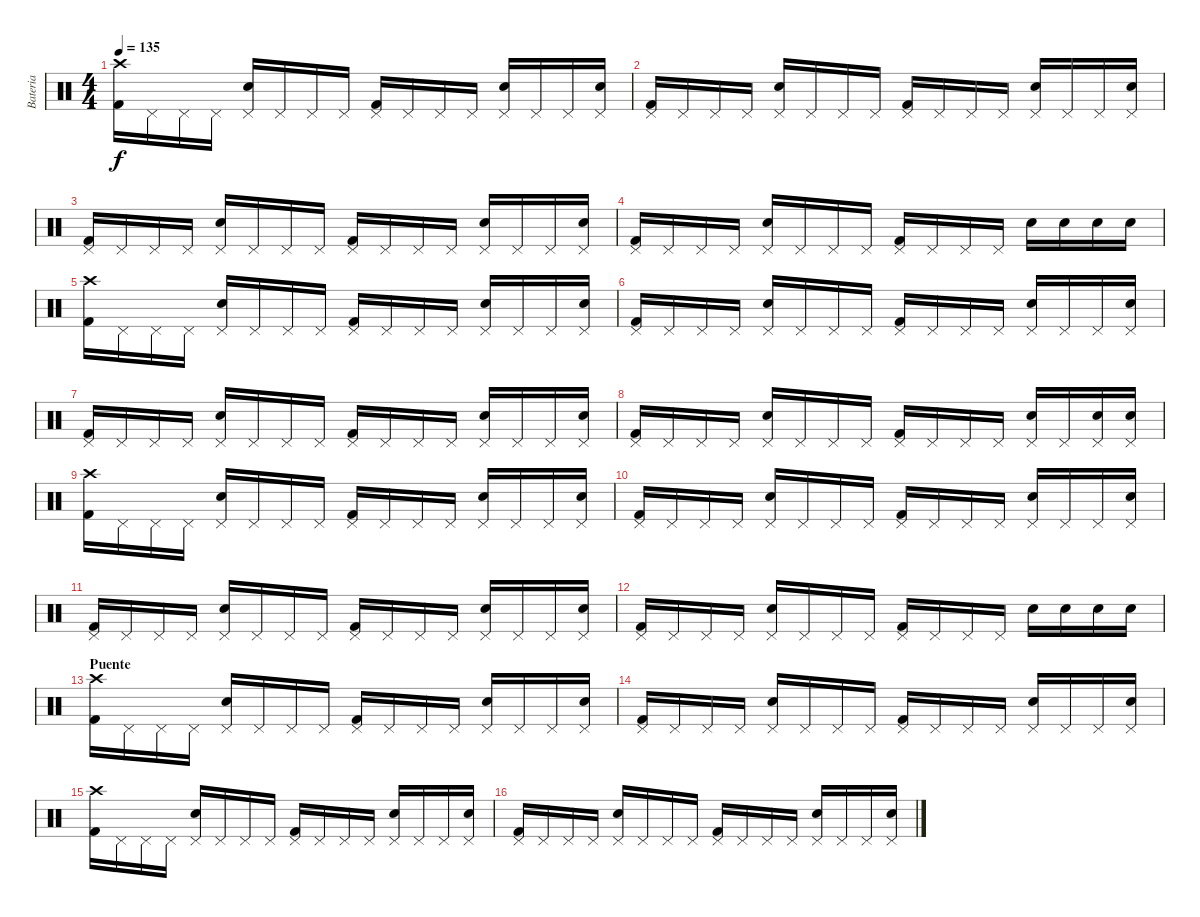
\track ("Bateria" "Bateria") {instrument percussion}
\staff {score}
\articulation defaults
\ts (4 4)
\tempo 135
\clef neutral
\ks c
("Crash high (hit)" "Kick (hit) 2").16{dy f} "Pedal Hi-Hat (hit)".16 "Pedal Hi-Hat (hit)".16 "Pedal Hi-Hat (hit)".16 ("Pedal Hi-Hat (hit)" "Electric Snare (hit)").16 "Pedal Hi-Hat (hit)".16 "Pedal Hi-Hat (hit)".16 "Pedal Hi-Hat (hit)".16 ("Pedal Hi-Hat (hit)" "Kick (hit) 2").16 "Pedal Hi-Hat (hit)".16 "Pedal Hi-Hat (hit)".16 "Pedal Hi-Hat (hit)".16 ("Pedal Hi-Hat (hit)" "Electric Snare (hit)").16 "Pedal Hi-Hat (hit)".16 "Pedal Hi-Hat (hit)".16 ("Pedal Hi-Hat (hit)" "Electric Snare (hit)").16 |
("Pedal Hi-Hat (hit)" "Kick (hit) 2").16 "Pedal Hi-Hat (hit)".16 "Pedal Hi-Hat (hit)".16 "Pedal Hi-Hat (hit)".16 ("Pedal Hi-Hat (hit)" "Electric Snare (hit)").16 "Pedal Hi-Hat (hit)".16 "Pedal Hi-Hat (hit)".16 "Pedal Hi-Hat (hit)".16 ("Pedal Hi-Hat (hit)" "Kick (hit) 2").16 "Pedal Hi-Hat (hit)".16 "Pedal Hi-Hat (hit)".16 "Pedal Hi-Hat (hit)".16 ("Pedal Hi-Hat (hit)" "Electric Snare (hit)").16 "Pedal Hi-Hat (hit)".16 "Pedal Hi-Hat (hit)".16 ("Pedal Hi-Hat (hit)" "Electric Snare (hit)").16 |
("Pedal Hi-Hat (hit)" "Kick (hit) 2").16 "Pedal Hi-Hat (hit)".16 "Pedal Hi-Hat (hit)".16 "Pedal Hi-Hat (hit)".16 ("Pedal Hi-Hat (hit)" "Electric Snare (hit)").16 "Pedal Hi-Hat (hit)".16 "Pedal Hi-Hat (hit)".16 "Pedal Hi-Hat (hit)".16 ("Pedal Hi-Hat (hit)" "Kick (hit) 2").16 "Pedal Hi-Hat (hit)".16 "Pedal Hi-Hat (hit)".16 "Pedal Hi-Hat (hit)".16 ("Pedal Hi-Hat (hit)" "Electric Snare (hit)").16 "Pedal Hi-Hat (hit)".16 "Pedal Hi-Hat (hit)".16 ("Pedal Hi-Hat (hit)" "Electric Snare (hit)").16 |
("Pedal Hi-Hat (hit)" "Kick (hit) 2").16 "Pedal Hi-Hat (hit)".16 "Pedal Hi-Hat (hit)".16 "Pedal Hi-Hat (hit)".16 ("Pedal Hi-Hat (hit)" "Electric Snare (hit)").16 "Pedal Hi-Hat (hit)".16 "Pedal Hi-Hat (hit)".16 "Pedal Hi-Hat (hit)".16 ("Pedal Hi-Hat (hit)" "Kick (hit) 2").16 "Pedal Hi-Hat (hit)".16 "Pedal Hi-Hat (hit)".16 "Pedal Hi-Hat (hit)".16 "Electric Snare (hit)".16 "Electric Snare (hit)".16 "Electric Snare (hit)".16 "Electric Snare (hit)".16 |
("Crash high (hit)" "Kick (hit) 2").16 "Pedal Hi-Hat (hit)".16 "Pedal Hi-Hat (hit)".16 "Pedal Hi-Hat (hit)".16 ("Pedal Hi-Hat (hit)" "Electric Snare (hit)").16 "Pedal Hi-Hat (hit)".16 "Pedal Hi-Hat (hit)".16 "Pedal Hi-Hat (hit)".16 ("Pedal Hi-Hat (hit)" "Kick (hit) 2").16 "Pedal Hi-Hat (hit)".16 "Pedal Hi-Hat (hit)".16 "Pedal Hi-Hat (hit)".16 ("Pedal Hi-Hat (hit)" "Electric Snare (hit)").16 "Pedal Hi-Hat (hit)".16 "Pedal Hi-Hat (hit)".16 ("Pedal Hi-Hat (hit)" "Electric Snare (hit)").16 |
("Pedal Hi-Hat (hit)" "Kick (hit) 2").16 "Pedal Hi-Hat (hit)".16 "Pedal Hi-Hat (hit)".16 "Pedal Hi-Hat (hit)".16 ("Pedal Hi-Hat (hit)" "Electric Snare (hit)").16 "Pedal Hi-Hat (hit)".16 "Pedal Hi-Hat (hit)".16 "Pedal Hi-Hat (hit)".16 ("Pedal Hi-Hat (hit)" "Kick (hit) 2").16 "Pedal Hi-Hat (hit)".16 "Pedal Hi-Hat (hit)".16 "Pedal Hi-Hat (hit)".16 ("Pedal Hi-Hat (hit)" "Electric Snare (hit)").16 "Pedal Hi-Hat (hit)".16 "Pedal Hi-Hat (hit)".16 ("Pedal Hi-Hat (hit)" "Electric Snare (hit)").16 |
("Pedal Hi-Hat (hit)" "Kick (hit) 2").16 "Pedal Hi-Hat (hit)".16 "Pedal Hi-Hat (hit)".16 "Pedal Hi-Hat (hit)".16 ("Pedal Hi-Hat (hit)" "Electric Snare (hit)").16 "Pedal Hi-Hat (hit)".16 "Pedal Hi-Hat (hit)".16 "Pedal Hi-Hat (hit)".16 ("Pedal Hi-Hat (hit)" "Kick (hit) 2").16 "Pedal Hi-Hat (hit)".16 "Pedal Hi-Hat (hit)".16 "Pedal Hi-Hat (hit)".16 ("Pedal Hi-Hat (hit)" "Electric Snare (hit)").16 "Pedal Hi-Hat (hit)".16 "Pedal Hi-Hat (hit)".16 ("Pedal Hi-Hat (hit)" "Electric Snare (hit)").16 |
("Pedal Hi-Hat (hit)" "Kick (hit) 2").16 "Pedal Hi-Hat (hit)".16 "Pedal Hi-Hat (hit)".16 "Pedal Hi-Hat (hit)".16 ("Pedal Hi-Hat (hit)" "Electric Snare (hit)").16 "Pedal Hi-Hat (hit)".16 "Pedal Hi-Hat (hit)".16 "Pedal Hi-Hat (hit)".16 ("Pedal Hi-Hat (hit)" "Kick (hit) 2").16 "Pedal Hi-Hat (hit)".16 "Pedal Hi-Hat (hit)".16 "Pedal Hi-Hat (hit)".16 ("Pedal Hi-Hat (hit)" "Electric Snare (hit)").16 "Pedal Hi-Hat (hit)".16 ("Pedal Hi-Hat (hit)" "Electric Snare (hit)").16 ("Pedal Hi-Hat (hit)" "Electric Snare (hit)").16 |
("Crash high (hit)" "Kick (hit) 2").16 "Pedal Hi-Hat (hit)".16 "Pedal Hi-Hat (hit)".16 "Pedal Hi-Hat (hit)".16 ("Pedal Hi-Hat (hit)" "Electric Snare (hit)").16 "Pedal Hi-Hat (hit)".16 "Pedal Hi-Hat (hit)".16 "Pedal Hi-Hat (hit)".16 ("Pedal Hi-Hat (hit)" "Kick (hit) 2").16 "Pedal Hi-Hat (hit)".16 "Pedal Hi-Hat (hit)".16 "Pedal Hi-Hat (hit)".16 ("Pedal Hi-Hat (hit)" "Electric Snare (hit)").16 "Pedal Hi-Hat (hit)".16 "Pedal Hi-Hat (hit)".16 ("Pedal Hi-Hat (hit)" "Electric Snare (hit)").16 |
("Pedal Hi-Hat (hit)" "Kick (hit) 2").16 "Pedal Hi-Hat (hit)".16 "Pedal Hi-Hat (hit)".16 "Pedal Hi-Hat (hit)".16 ("Pedal Hi-Hat (hit)" "Electric Snare (hit)").16 "Pedal Hi-Hat (hit)".16 "Pedal Hi-Hat (hit)".16 "Pedal Hi-Hat (hit)".16 ("Pedal Hi-Hat (hit)" "Kick (hit) 2").16 "Pedal Hi-Hat (hit)".16 "Pedal Hi-Hat (hit)".16 "Pedal Hi-Hat (hit)".16 ("Pedal Hi-Hat (hit)" "Electric Snare (hit)").16 "Pedal Hi-Hat (hit)".16 "Pedal Hi-Hat (hit)".16 ("Pedal Hi-Hat (hit)" "Electric Snare (hit)").16 |
("Pedal Hi-Hat (hit)" "Kick (hit) 2").16 "Pedal Hi-Hat (hit)".16 "Pedal Hi-Hat (hit)".16 "Pedal Hi-Hat (hit)".16 ("Pedal Hi-Hat (hit)" "Electric Snare (hit)").16 "Pedal Hi-Hat (hit)".16 "Pedal Hi-Hat (hit)".16 "Pedal Hi-Hat (hit)".16 ("Pedal Hi-Hat (hit)" "Kick (hit) 2").16 "Pedal Hi-Hat (hit)".16 "Pedal Hi-Hat (hit)".16 "Pedal Hi-Hat (hit)".16 ("Pedal Hi-Hat (hit)" "Electric Snare (hit)").16 "Pedal Hi-Hat (hit)".16 "Pedal Hi-Hat (hit)".16 ("Pedal Hi-Hat (hit)" "Electric Snare (hit)").16 |
("Pedal Hi-Hat (hit)" "Kick (hit) 2").16 "Pedal Hi-Hat (hit)".16 "Pedal Hi-Hat (hit)".16 "Pedal Hi-Hat (hit)".16 ("Pedal Hi-Hat (hit)" "Electric Snare (hit)").16 "Pedal Hi-Hat (hit)".16 "Pedal Hi-Hat (hit)".16 "Pedal Hi-Hat (hit)".16 ("Pedal Hi-Hat (hit)" "Kick (hit) 2").16 "Pedal Hi-Hat (hit)".16 "Pedal Hi-Hat (hit)".16 "Pedal Hi-Hat (hit)".16 "Electric Snare (hit)".16 "Electric Snare (hit)".16 "Electric Snare (hit)".16 "Electric Snare (hit)".16 |
\section ("" "Puente")
("Crash high (hit)" "Kick (hit) 2").16 "Pedal Hi-Hat (hit)".16 "Pedal Hi-Hat (hit)".16 "Pedal Hi-Hat (hit)".16 ("Pedal Hi-Hat (hit)" "Electric Snare (hit)").16 "Pedal Hi-Hat (hit)".16 "Pedal Hi-Hat (hit)".16 "Pedal Hi-Hat (hit)".16 ("Pedal Hi-Hat (hit)" "Kick (hit) 2").16 "Pedal Hi-Hat (hit)".16 "Pedal Hi-Hat (hit)".16 "Pedal Hi-Hat (hit)".16 ("Pedal Hi-Hat (hit)" "Electric Snare (hit)").16 "Pedal Hi-Hat (hit)".16 "Pedal Hi-Hat (hit)".16 ("Pedal Hi-Hat (hit)" "Electric Snare (hit)").16 |
("Pedal Hi-Hat (hit)" "Kick (hit) 2").16 "Pedal Hi-Hat (hit)".16 "Pedal Hi-Hat (hit)".16 "Pedal Hi-Hat (hit)".16 ("Pedal Hi-Hat (hit)" "Electric Snare (hit)").16 "Pedal Hi-Hat (hit)".16 "Pedal Hi-Hat (hit)".16 "Pedal Hi-Hat (hit)".16 ("Pedal Hi-Hat (hit)" "Kick (hit) 2").16 "Pedal Hi-Hat (hit)".16 "Pedal Hi-Hat (hit)".16 "Pedal Hi-Hat (hit)".16 ("Pedal Hi-Hat (hit)" "Electric Snare (hit)").16 "Pedal Hi-Hat (hit)".16 "Pedal Hi-Hat (hit)".16 ("Pedal Hi-Hat (hit)" "Electric Snare (hit)").16 |
("Crash high (hit)" "Kick (hit) 2").16 "Pedal Hi-Hat (hit)".16 "Pedal Hi-Hat (hit)".16 "Pedal Hi-Hat (hit)".16 ("Pedal Hi-Hat (hit)" "Electric Snare (hit)").16 "Pedal Hi-Hat (hit)".16 "Pedal Hi-Hat (hit)".16 "Pedal Hi-Hat (hit)".16 ("Pedal Hi-Hat (hit)" "Kick (hit) 2").16 "Pedal Hi-Hat (hit)".16 "Pedal Hi-Hat (hit)".16 "Pedal Hi-Hat (hit)".16 ("Pedal Hi-Hat (hit)" "Electric Snare (hit)").16 "Pedal Hi-Hat (hit)".16 "Pedal Hi-Hat (hit)".16 ("Pedal Hi-Hat (hit)" "Electric Snare (hit)").16 |
("Pedal Hi-Hat (hit)" "Kick (hit) 2").16 "Pedal Hi-Hat (hit)".16 "Pedal Hi-Hat (hit)".16 "Pedal Hi-Hat (hit)".16 ("Pedal Hi-Hat (hit)" "Electric Snare (hit)").16 "Pedal Hi-Hat (hit)".16 "Pedal Hi-Hat (hit)".16 "Pedal Hi-Hat (hit)".16 ("Pedal Hi-Hat (hit)" "Kick (hit) 2").16 "Pedal Hi-Hat (hit)".16 "Pedal Hi-Hat (hit)".16 "Pedal Hi-Hat (hit)".16 ("Pedal Hi-Hat (hit)" "Electric Snare (hit)").16 "Pedal Hi-Hat (hit)".16 "Pedal Hi-Hat (hit)".16 ("Pedal Hi-Hat (hit)" "Electric Snare (hit)").16
